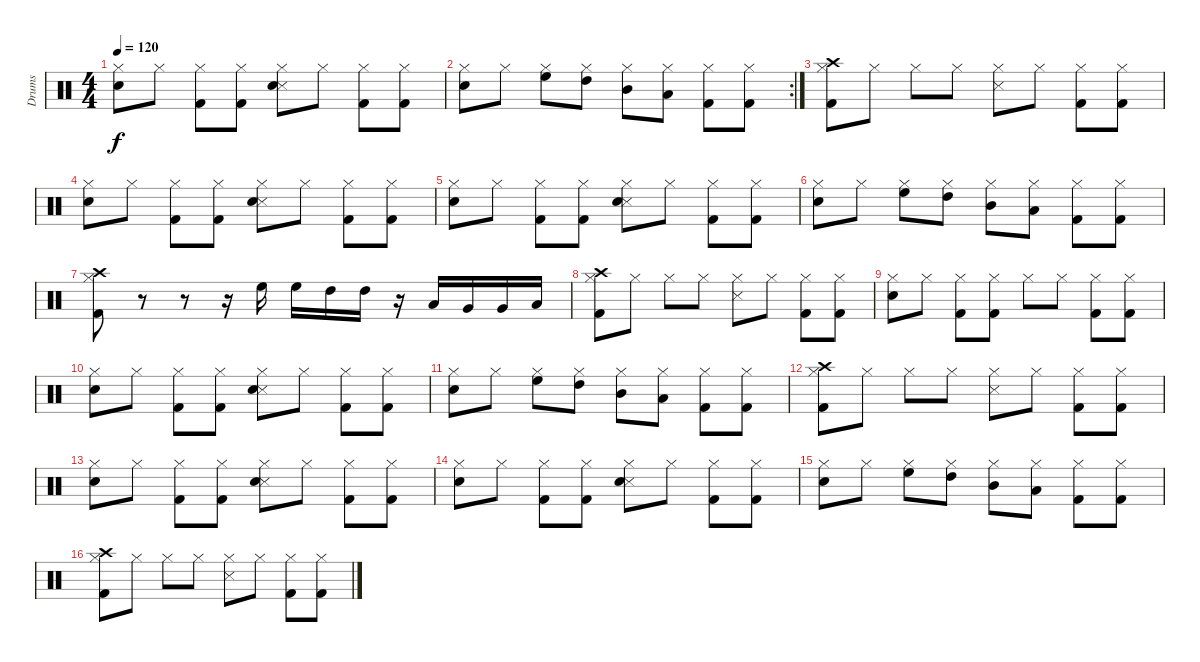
\track ("Drums" "Drums") {instrument percussion}
\staff {score}
\articulation defaults
\ts (4 4)
\tempo 120
\clef neutral
\ks c
("Hi-Hat (closed)" "Electric Snare (hit)").8{dy f} "Hi-Hat (closed)".8 ("Hi-Hat (closed)" "Kick (hit) 2").8 ("Hi-Hat (closed)" "Kick (hit) 2").8 ("Hi-Hat (closed)" "Snare (side stick) 3" "Snare (hit) 2").8 "Hi-Hat (closed)".8 ("Hi-Hat (closed)" "Kick (hit) 2").8 ("Hi-Hat (closed)" "Kick (hit) 2").8 |
\rc 2
("Hi-Hat (closed)" "Electric Snare (hit)").8 "Hi-Hat (closed)".8 ("Hi-Hat (closed)" "High Floor Tom (hit)").8 ("Hi-Hat (closed)" "High Tom (hit)").8 ("Hi-Hat (closed)" "Mid Tom (hit)").8 ("Hi-Hat (closed)" "Low Tom (hit)").8 ("Hi-Hat (closed)" "Kick (hit) 2").8 ("Hi-Hat (closed)" "Kick (hit) 2").8 |
("Hi-Hat (closed)" "Kick (hit) 2" "Crash high (hit)").8 "Hi-Hat (closed)".8 "Hi-Hat (closed)".8 "Hi-Hat (closed)".8 ("Hi-Hat (closed)" "Snare (side stick) 3").8 "Hi-Hat (closed)".8 ("Hi-Hat (closed)" "Kick (hit) 2").8 ("Hi-Hat (closed)" "Kick (hit) 2").8 |
("Hi-Hat (closed)" "Electric Snare (hit)").8 "Hi-Hat (closed)".8 ("Hi-Hat (closed)" "Kick (hit) 2").8 ("Hi-Hat (closed)" "Kick (hit) 2").8 ("Hi-Hat (closed)" "Snare (side stick) 3" "Snare (hit) 2").8 "Hi-Hat (closed)".8 ("Hi-Hat (closed)" "Kick (hit) 2").8 ("Hi-Hat (closed)" "Kick (hit) 2").8 |
("Hi-Hat (closed)" "Electric Snare (hit)").8 "Hi-Hat (closed)".8 ("Hi-Hat (closed)" "Kick (hit) 2").8 ("Hi-Hat (closed)" "Kick (hit) 2").8 ("Hi-Hat (closed)" "Snare (side stick) 3" "Snare (hit) 2").8 "Hi-Hat (closed)".8 ("Hi-Hat (closed)" "Kick (hit) 2").8 ("Hi-Hat (closed)" "Kick (hit) 2").8 |
("Hi-Hat (closed)" "Electric Snare (hit)").8 "Hi-Hat (closed)".8 ("Hi-Hat (closed)" "High Floor Tom (hit)").8 ("Hi-Hat (closed)" "High Tom (hit)").8 ("Hi-Hat (closed)" "Mid Tom (hit)").8 ("Hi-Hat (closed)" "Low Tom (hit)").8 ("Hi-Hat (closed)" "Kick (hit) 2").8 ("Hi-Hat (closed)" "Kick (hit) 2").8 |
("Hi-Hat (closed)" "Kick (hit) 2" "Crash high (hit)").8 r.8 r.8 r.16 "High Floor Tom (hit)".16 "High Floor Tom (hit)".16 "High Tom (hit)".16 "High Tom (hit)".16 r.16 "Low Tom (hit)".16 "Very Low Tom (hit)".16 "Very Low Tom (hit)".16 "Low Floor Tom (hit)".16 |
("Hi-Hat (closed)" "Kick (hit) 2" "Crash high (hit)").8 "Hi-Hat (closed)".8 "Hi-Hat (closed)".8 "Hi-Hat (closed)".8 ("Hi-Hat (closed)" "Snare (side stick) 3").8 "Hi-Hat (closed)".8 ("Hi-Hat (closed)" "Kick (hit) 2").8 ("Hi-Hat (closed)" "Kick (hit) 2").8 |
("Hi-Hat (closed)" "Electric Snare (hit)").8 "Hi-Hat (closed)".8 ("Hi-Hat (closed)" "Kick (hit) 2").8 ("Hi-Hat (closed)" "Kick (hit) 2").8 "Hi-Hat (closed)".8 "Hi-Hat (closed)".8 ("Hi-Hat (closed)" "Kick (hit) 2").8 ("Hi-Hat (closed)" "Kick (hit) 2").8 |
("Hi-Hat (closed)" "Electric Snare (hit)").8 "Hi-Hat (closed)".8 ("Hi-Hat (closed)" "Kick (hit) 2").8 ("Hi-Hat (closed)" "Kick (hit) 2").8 ("Hi-Hat (closed)" "Snare (side stick) 3" "Snare (hit) 2").8 "Hi-Hat (closed)".8 ("Hi-Hat (closed)" "Kick (hit) 2").8 ("Hi-Hat (closed)" "Kick (hit) 2").8 |
("Hi-Hat (closed)" "Electric Snare (hit)").8 "Hi-Hat (closed)".8 ("Hi-Hat (closed)" "High Floor Tom (hit)").8 ("Hi-Hat (closed)" "High Tom (hit)").8 ("Hi-Hat (closed)" "Mid Tom (hit)").8 ("Hi-Hat (closed)" "Low Tom (hit)").8 ("Hi-Hat (closed)" "Kick (hit) 2").8 ("Hi-Hat (closed)" "Kick (hit) 2").8 |
("Hi-Hat (closed)" "Kick (hit) 2" "Crash high (hit)").8 "Hi-Hat (closed)".8 "Hi-Hat (closed)".8 "Hi-Hat (closed)".8 ("Hi-Hat (closed)" "Snare (side stick) 3").8 "Hi-Hat (closed)".8 ("Hi-Hat (closed)" "Kick (hit) 2").8 ("Hi-Hat (closed)" "Kick (hit) 2").8 |
("Hi-Hat (closed)" "Electric Snare (hit)").8 "Hi-Hat (closed)".8 ("Hi-Hat (closed)" "Kick (hit) 2").8 ("Hi-Hat (closed)" "Kick (hit) 2").8 ("Hi-Hat (closed)" "Snare (side stick) 3" "Snare (hit) 2").8 "Hi-Hat (closed)".8 ("Hi-Hat (closed)" "Kick (hit) 2").8 ("Hi-Hat (closed)" "Kick (hit) 2").8 |
("Hi-Hat (closed)" "Electric Snare (hit)").8 "Hi-Hat (closed)".8 ("Hi-Hat (closed)" "Kick (hit) 2").8 ("Hi-Hat (closed)" "Kick (hit) 2").8 ("Hi-Hat (closed)" "Snare (side stick) 3" "Snare (hit) 2").8 "Hi-Hat (closed)".8 ("Hi-Hat (closed)" "Kick (hit) 2").8 ("Hi-Hat (closed)" "Kick (hit) 2").8 |
("Hi-Hat (closed)" "Electric Snare (hit)").8 "Hi-Hat (closed)".8 ("Hi-Hat (closed)" "High Floor Tom (hit)").8 ("Hi-Hat (closed)" "High Tom (hit)").8 ("Hi-Hat (closed)" "Mid Tom (hit)").8 ("Hi-Hat (closed)" "Low Tom (hit)").8 ("Hi-Hat (closed)" "Kick (hit) 2").8 ("Hi-Hat (closed)" "Kick (hit) 2").8 |
("Hi-Hat (closed)" "Kick (hit) 2" "Crash high (hit)").8{volume 0} "Hi-Hat (closed)".8 "Hi-Hat (closed)".8 "Hi-Hat (closed)".8 ("Hi-Hat (closed)" "Snare (side stick) 3").8 "Hi-Hat (closed)".8 ("Hi-Hat (closed)" "Kick (hit) 2").8 ("Hi-Hat (closed)" "Kick (hit) 2").8
